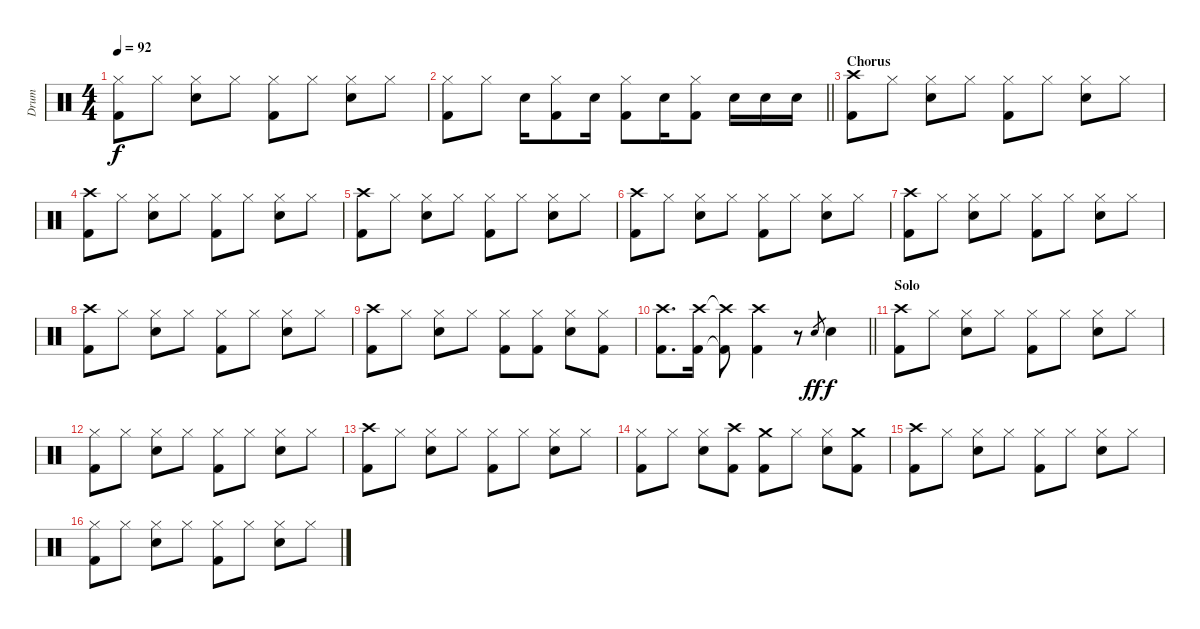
\track ("Drum" "Drum") {instrument percussion}
\staff {score}
\articulation defaults
\ts (4 4)
\tempo 92
\clef neutral
\ks c
("Hi-Hat (closed)" "Kick (hit) 2").8{dy f} "Hi-Hat (closed)".8 ("Hi-Hat (closed)" "Snare (hit) 2").8 "Hi-Hat (closed)".8 ("Hi-Hat (closed)" "Kick (hit) 2").8 "Hi-Hat (closed)".8 ("Hi-Hat (closed)" "Snare (hit) 2").8 "Hi-Hat (closed)".8 |
\barLineRight lightlight
("Hi-Hat (closed)" "Kick (hit) 2").8 "Hi-Hat (closed)".8 "Snare (hit) 2".16 ("Hi-Hat (closed)" "Kick (hit) 2").8 "Snare (hit) 2".16 ("Hi-Hat (closed)" "Kick (hit) 2").8 "Snare (hit) 2".16 ("Hi-Hat (closed)" "Kick (hit) 2").8 "Snare (hit) 2".16 "Snare (hit) 2".16 "Snare (hit) 2".16 |
\section ("" "Chorus")
("Crash high (hit)" "Kick (hit) 2").8 "Hi-Hat (closed)".8 ("Hi-Hat (closed)" "Snare (hit) 2").8 "Hi-Hat (closed)".8 ("Hi-Hat (closed)" "Kick (hit) 2").8 "Hi-Hat (closed)".8 ("Hi-Hat (closed)" "Snare (hit) 2").8 "Hi-Hat (closed)".8 |
("Crash high (hit)" "Kick (hit) 2").8 "Hi-Hat (closed)".8 ("Hi-Hat (closed)" "Snare (hit) 2").8 "Hi-Hat (closed)".8 ("Hi-Hat (closed)" "Kick (hit) 2").8 "Hi-Hat (closed)".8 ("Hi-Hat (closed)" "Snare (hit) 2").8 "Hi-Hat (closed)".8 |
("Crash high (hit)" "Kick (hit) 2").8 "Hi-Hat (closed)".8 ("Hi-Hat (closed)" "Snare (hit) 2").8 "Hi-Hat (closed)".8 ("Hi-Hat (closed)" "Kick (hit) 2").8 "Hi-Hat (closed)".8 ("Hi-Hat (closed)" "Snare (hit) 2").8 "Hi-Hat (closed)".8 |
("Crash high (hit)" "Kick (hit) 2").8 "Hi-Hat (closed)".8 ("Hi-Hat (closed)" "Snare (hit) 2").8 "Hi-Hat (closed)".8 ("Hi-Hat (closed)" "Kick (hit) 2").8 "Hi-Hat (closed)".8 ("Hi-Hat (closed)" "Snare (hit) 2").8 "Hi-Hat (closed)".8 |
("Crash high (hit)" "Kick (hit) 2").8 "Hi-Hat (closed)".8 ("Hi-Hat (closed)" "Snare (hit) 2").8 "Hi-Hat (closed)".8 ("Hi-Hat (closed)" "Kick (hit) 2").8 "Hi-Hat (closed)".8 ("Hi-Hat (closed)" "Snare (hit) 2").8 "Hi-Hat (closed)".8 |
("Crash high (hit)" "Kick (hit) 2").8 "Hi-Hat (closed)".8 ("Hi-Hat (closed)" "Snare (hit) 2").8 "Hi-Hat (closed)".8 ("Hi-Hat (closed)" "Kick (hit) 2").8 "Hi-Hat (closed)".8 ("Hi-Hat (closed)" "Snare (hit) 2").8 "Hi-Hat (closed)".8 |
("Crash high (hit)" "Kick (hit) 2").8 "Hi-Hat (closed)".8 ("Hi-Hat (closed)" "Snare (hit) 2").8 "Hi-Hat (closed)".8 ("Hi-Hat (closed)" "Kick (hit) 2").8 ("Hi-Hat (closed)" "Kick (hit) 2").8 ("Hi-Hat (closed)" "Snare (hit) 2").8 ("Hi-Hat (closed)" "Kick (hit) 2").8 |
\barLineRight lightlight
("Crash high (hit)" "Kick (hit) 2").8{d} ("Crash high (hit)" "Kick (hit) 2").16 ("Crash high (hit)"{t} "Kick (hit) 2"{t}).8 ("Crash high (hit)" "Kick (hit) 2").4 r.8 "Snare (hit) 2".8{gr dy ff} "Snare (hit) 2".4{dy f} |
\section ("" "Solo")
("Crash high (hit)" "Kick (hit) 2").8 "Hi-Hat (closed)".8 ("Hi-Hat (closed)" "Snare (hit) 2").8 "Hi-Hat (closed)".8 ("Hi-Hat (closed)" "Kick (hit) 2").8 "Hi-Hat (closed)".8 ("Hi-Hat (closed)" "Snare (hit) 2").8 "Hi-Hat (closed)".8 |
("Hi-Hat (closed)" "Kick (hit) 2").8 "Hi-Hat (closed)".8 ("Hi-Hat (closed)" "Snare (hit) 2").8 "Hi-Hat (closed)".8 ("Hi-Hat (closed)" "Kick (hit) 2").8 "Hi-Hat (closed)".8 ("Hi-Hat (closed)" "Snare (hit) 2").8 "Hi-Hat (closed)".8 |
("Crash high (hit)" "Kick (hit) 2").8 "Hi-Hat (closed)".8 ("Hi-Hat (closed)" "Snare (hit) 2").8 "Hi-Hat (closed)".8 ("Hi-Hat (closed)" "Kick (hit) 2").8 "Hi-Hat (closed)".8 ("Hi-Hat (closed)" "Snare (hit) 2").8 "Hi-Hat (closed)".8 |
("Hi-Hat (closed)" "Kick (hit) 2").8 "Hi-Hat (closed)".8 ("Hi-Hat (closed)" "Snare (hit) 2").8 ("Crash high (hit)" "Kick (hit) 2").8 ("Crash medium (hit)" "Kick (hit) 2").8 "Hi-Hat (closed)".8 ("Hi-Hat (closed)" "Snare (hit) 2").8 ("Crash medium (hit)" "Kick (hit) 2").8 |
("Crash high (hit)" "Kick (hit) 2").8 "Hi-Hat (closed)".8 ("Hi-Hat (closed)" "Snare (hit) 2").8 "Hi-Hat (closed)".8 ("Hi-Hat (closed)" "Kick (hit) 2").8 "Hi-Hat (closed)".8 ("Hi-Hat (closed)" "Snare (hit) 2").8 "Hi-Hat (closed)".8 |
("Hi-Hat (closed)" "Kick (hit) 2").8 "Hi-Hat (closed)".8 ("Hi-Hat (closed)" "Snare (hit) 2").8 "Hi-Hat (closed)".8 ("Hi-Hat (closed)" "Kick (hit) 2").8 "Hi-Hat (closed)".8 ("Hi-Hat (closed)" "Snare (hit) 2").8 "Hi-Hat (closed)".8
